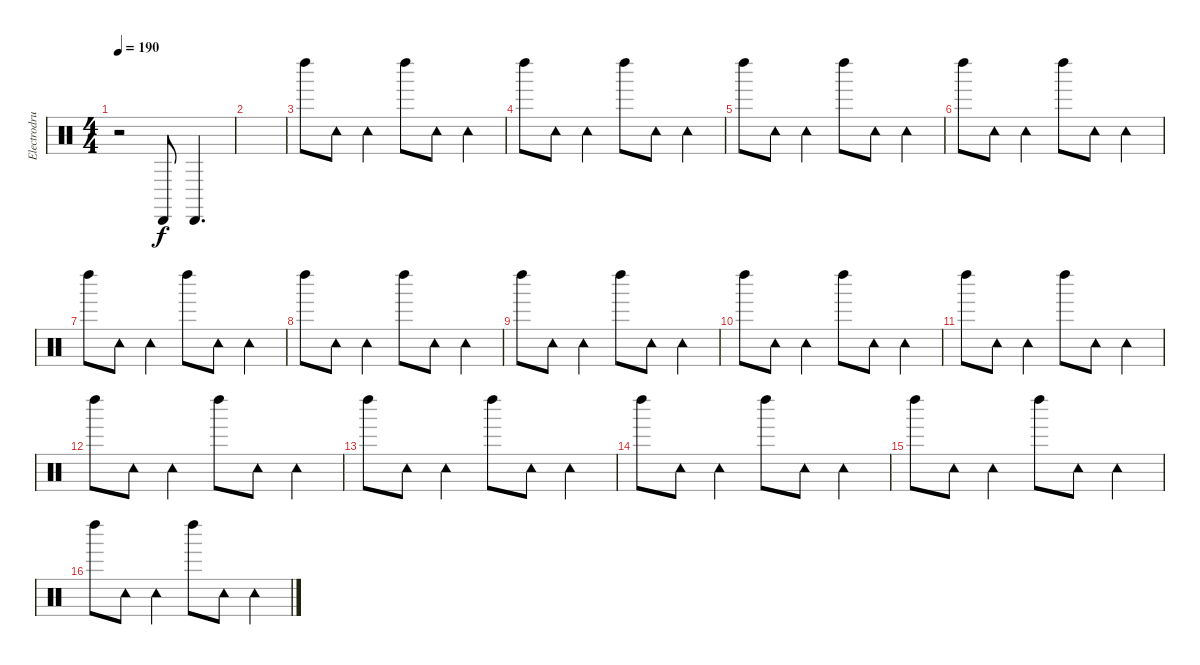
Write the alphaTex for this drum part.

\track ("Electrodrums2" "Electrodru") {instrument percussion}
\staff {score}
\articulation defaults
\ts (4 4)
\tempo 190
\clef neutral
\ks c
r.2{dy f} "Cabasa (hit)".8 "Cabasa (hit)".4{d} |
|
"Left Maraca (hit)".8 "Tambourine (hit)".8 "Tambourine (hit)".4 "Left Maraca (hit)".8 "Tambourine (hit)".8 "Tambourine (hit)".4 |
"Left Maraca (hit)".8 "Tambourine (hit)".8 "Tambourine (hit)".4 "Left Maraca (hit)".8 "Tambourine (hit)".8 "Tambourine (hit)".4 |
"Left Maraca (hit)".8 "Tambourine (hit)".8 "Tambourine (hit)".4 "Left Maraca (hit)".8 "Tambourine (hit)".8 "Tambourine (hit)".4 |
"Left Maraca (hit)".8 "Tambourine (hit)".8 "Tambourine (hit)".4 "Left Maraca (hit)".8 "Tambourine (hit)".8 "Tambourine (hit)".4 |
"Left Maraca (hit)".8 "Tambourine (hit)".8 "Tambourine (hit)".4 "Left Maraca (hit)".8 "Tambourine (hit)".8 "Tambourine (hit)".4 |
"Left Maraca (hit)".8 "Tambourine (hit)".8 "Tambourine (hit)".4 "Left Maraca (hit)".8 "Tambourine (hit)".8 "Tambourine (hit)".4 |
"Left Maraca (hit)".8 "Tambourine (hit)".8 "Tambourine (hit)".4 "Left Maraca (hit)".8 "Tambourine (hit)".8 "Tambourine (hit)".4 |
"Left Maraca (hit)".8 "Tambourine (hit)".8 "Tambourine (hit)".4 "Left Maraca (hit)".8 "Tambourine (hit)".8 "Tambourine (hit)".4 |
"Left Maraca (hit)".8 "Tambourine (hit)".8 "Tambourine (hit)".4 "Left Maraca (hit)".8 "Tambourine (hit)".8 "Tambourine (hit)".4 |
"Left Maraca (hit)".8 "Tambourine (hit)".8 "Tambourine (hit)".4 "Left Maraca (hit)".8 "Tambourine (hit)".8 "Tambourine (hit)".4 |
"Left Maraca (hit)".8 "Tambourine (hit)".8 "Tambourine (hit)".4 "Left Maraca (hit)".8 "Tambourine (hit)".8 "Tambourine (hit)".4 |
"Left Maraca (hit)".8 "Tambourine (hit)".8 "Tambourine (hit)".4 "Left Maraca (hit)".8 "Tambourine (hit)".8 "Tambourine (hit)".4 |
"Left Maraca (hit)".8 "Tambourine (hit)".8 "Tambourine (hit)".4 "Left Maraca (hit)".8 "Tambourine (hit)".8 "Tambourine (hit)".4 |
"Left Maraca (hit)".8 "Tambourine (hit)".8 "Tambourine (hit)".4 "Left Maraca (hit)".8 "Tambourine (hit)".8 "Tambourine (hit)".4
